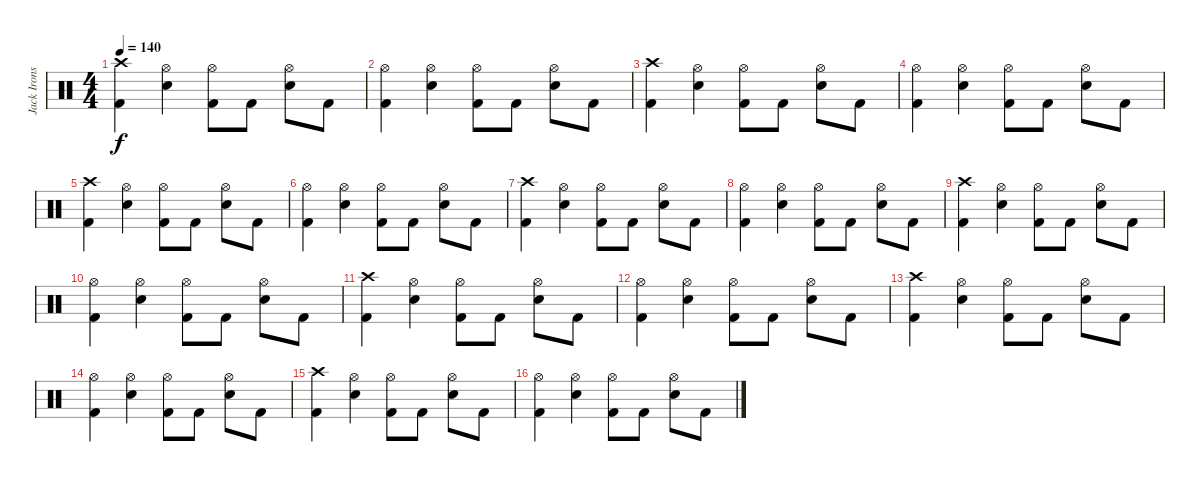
\track ("Jack Irons" "Jack Irons") {instrument percussion}
\staff {score}
\articulation defaults
\ts (4 4)
\tempo 140
\clef neutral
\ks c
("Crash high (hit)" "Kick (hit) 2").4{dy f} ("Hi-Hat (open)" "Electric Snare (hit)").4 ("Hi-Hat (open)" "Kick (hit) 2").8 "Kick (hit) 2".8 ("Hi-Hat (open)" "Electric Snare (hit)").8 "Kick (hit) 2".8 |
("Hi-Hat (open)" "Kick (hit) 2").4 ("Hi-Hat (open)" "Electric Snare (hit)").4 ("Hi-Hat (open)" "Kick (hit) 2").8 "Kick (hit) 2".8 ("Hi-Hat (open)" "Electric Snare (hit)").8 "Kick (hit) 2".8 |
("Crash high (hit)" "Kick (hit) 2").4 ("Hi-Hat (open)" "Electric Snare (hit)").4 ("Hi-Hat (open)" "Kick (hit) 2").8 "Kick (hit) 2".8 ("Hi-Hat (open)" "Electric Snare (hit)").8 "Kick (hit) 2".8 |
("Hi-Hat (open)" "Kick (hit) 2").4 ("Hi-Hat (open)" "Electric Snare (hit)").4 ("Hi-Hat (open)" "Kick (hit) 2").8 "Kick (hit) 2".8 ("Hi-Hat (open)" "Electric Snare (hit)").8 "Kick (hit) 2".8 |
("Crash high (hit)" "Kick (hit) 2").4 ("Hi-Hat (open)" "Electric Snare (hit)").4 ("Hi-Hat (open)" "Kick (hit) 2").8 "Kick (hit) 2".8 ("Hi-Hat (open)" "Electric Snare (hit)").8 "Kick (hit) 2".8 |
("Hi-Hat (open)" "Kick (hit) 2").4 ("Hi-Hat (open)" "Electric Snare (hit)").4 ("Hi-Hat (open)" "Kick (hit) 2").8 "Kick (hit) 2".8 ("Hi-Hat (open)" "Electric Snare (hit)").8 "Kick (hit) 2".8 |
("Crash high (hit)" "Kick (hit) 2").4 ("Hi-Hat (open)" "Electric Snare (hit)").4 ("Hi-Hat (open)" "Kick (hit) 2").8 "Kick (hit) 2".8 ("Hi-Hat (open)" "Electric Snare (hit)").8 "Kick (hit) 2".8 |
("Hi-Hat (open)" "Kick (hit) 2").4 ("Hi-Hat (open)" "Electric Snare (hit)").4 ("Hi-Hat (open)" "Kick (hit) 2").8 "Kick (hit) 2".8 ("Hi-Hat (open)" "Electric Snare (hit)").8 "Kick (hit) 2".8 |
("Crash high (hit)" "Kick (hit) 2").4 ("Hi-Hat (open)" "Electric Snare (hit)").4 ("Hi-Hat (open)" "Kick (hit) 2").8 "Kick (hit) 2".8 ("Hi-Hat (open)" "Electric Snare (hit)").8 "Kick (hit) 2".8 |
("Hi-Hat (open)" "Kick (hit) 2").4 ("Hi-Hat (open)" "Electric Snare (hit)").4 ("Hi-Hat (open)" "Kick (hit) 2").8 "Kick (hit) 2".8 ("Hi-Hat (open)" "Electric Snare (hit)").8 "Kick (hit) 2".8 |
("Crash high (hit)" "Kick (hit) 2").4 ("Hi-Hat (open)" "Electric Snare (hit)").4 ("Hi-Hat (open)" "Kick (hit) 2").8 "Kick (hit) 2".8 ("Hi-Hat (open)" "Electric Snare (hit)").8 "Kick (hit) 2".8 |
("Hi-Hat (open)" "Kick (hit) 2").4 ("Hi-Hat (open)" "Electric Snare (hit)").4 ("Hi-Hat (open)" "Kick (hit) 2").8 "Kick (hit) 2".8 ("Hi-Hat (open)" "Electric Snare (hit)").8 "Kick (hit) 2".8 |
("Crash high (hit)" "Kick (hit) 2").4 ("Hi-Hat (open)" "Electric Snare (hit)").4 ("Hi-Hat (open)" "Kick (hit) 2").8 "Kick (hit) 2".8 ("Hi-Hat (open)" "Electric Snare (hit)").8 "Kick (hit) 2".8 |
("Hi-Hat (open)" "Kick (hit) 2").4 ("Hi-Hat (open)" "Electric Snare (hit)").4 ("Hi-Hat (open)" "Kick (hit) 2").8 "Kick (hit) 2".8 ("Hi-Hat (open)" "Electric Snare (hit)").8 "Kick (hit) 2".8 |
("Crash high (hit)" "Kick (hit) 2").4 ("Hi-Hat (open)" "Electric Snare (hit)").4 ("Hi-Hat (open)" "Kick (hit) 2").8 "Kick (hit) 2".8 ("Hi-Hat (open)" "Electric Snare (hit)").8 "Kick (hit) 2".8 |
("Hi-Hat (open)" "Kick (hit) 2").4 ("Hi-Hat (open)" "Electric Snare (hit)").4 ("Hi-Hat (open)" "Kick (hit) 2").8 "Kick (hit) 2".8 ("Hi-Hat (open)" "Electric Snare (hit)").8 "Kick (hit) 2".8
